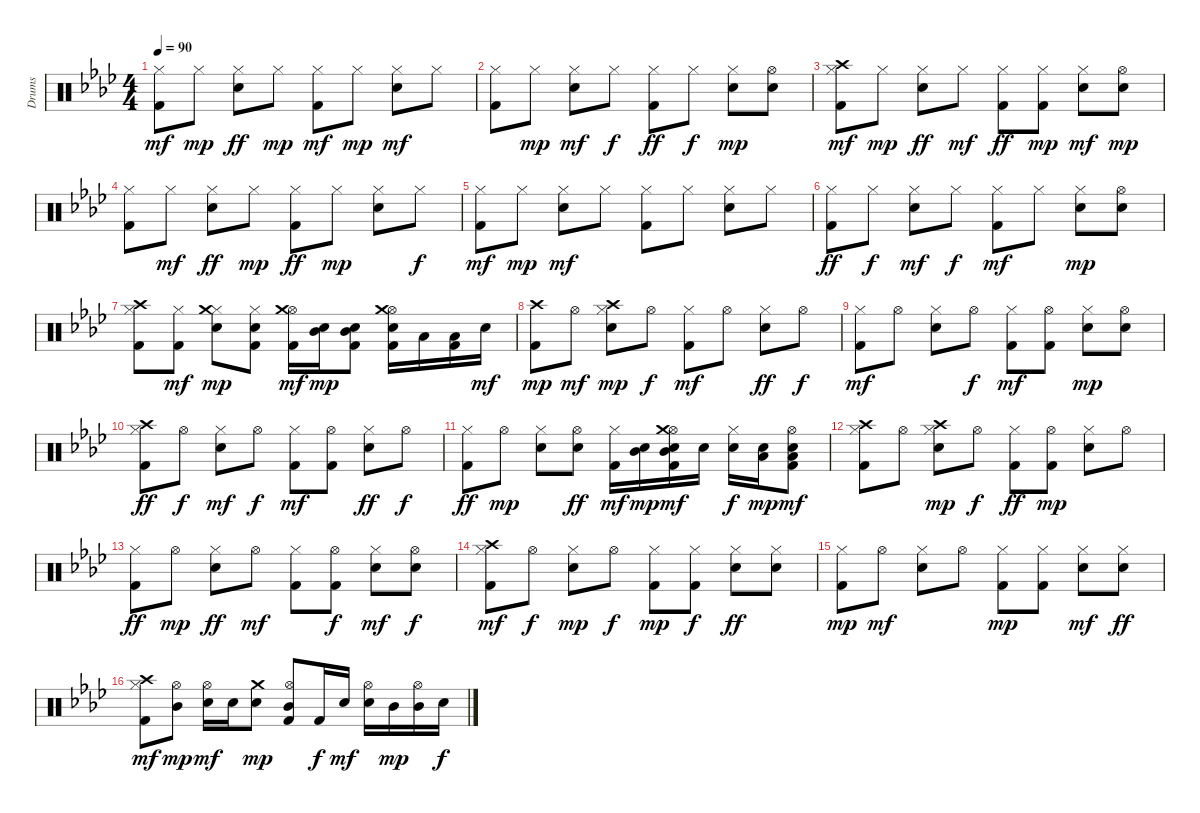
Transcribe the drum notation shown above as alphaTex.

\track ("Drums" "Drums") {instrument percussion}
\staff {score}
\articulation defaults
\ts (4 4)
\tempo 90
\clef neutral
\ks ab
("Kick (hit) 2" "Hi-Hat (closed)").8{dy mf} "Hi-Hat (closed)".8{dy mp} ("Snare (hit) 2" "Hi-Hat (closed)").8{dy ff} "Hi-Hat (closed)".8{dy mp} ("Kick (hit) 2" "Hi-Hat (closed)").8{dy mf} "Hi-Hat (closed)".8{dy mp} ("Snare (hit) 2" "Hi-Hat (closed)").8{dy mf} "Hi-Hat (closed)".8 |
("Kick (hit) 2" "Hi-Hat (closed)").8 "Hi-Hat (closed)".8{dy mp} ("Snare (hit) 2" "Hi-Hat (closed)").8{dy mf} "Hi-Hat (closed)".8{dy f} ("Kick (hit) 2" "Hi-Hat (closed)").8{dy ff} "Hi-Hat (closed)".8{dy f} ("Snare (hit) 2" "Hi-Hat (closed)").8{dy mp} ("Snare (hit) 2" "Hi-Hat (open)").8 |
("Kick (hit) 2" "Hi-Hat (closed)" "Crash high (hit)").8{dy mf} "Hi-Hat (closed)".8{dy mp} ("Snare (hit) 2" "Hi-Hat (closed)").8{dy ff} "Hi-Hat (closed)".8{dy mf} ("Kick (hit) 2" "Hi-Hat (closed)").8{dy ff} ("Kick (hit) 2" "Hi-Hat (closed)").8{dy mp} ("Snare (hit) 2" "Hi-Hat (closed)").8{dy mf} ("Snare (hit) 2" "Hi-Hat (open)").8{dy mp} |
("Kick (hit) 2" "Hi-Hat (closed)").8 "Hi-Hat (closed)".8{dy mf} ("Snare (hit) 2" "Hi-Hat (closed)").8{dy ff} "Hi-Hat (closed)".8{dy mp} ("Kick (hit) 2" "Hi-Hat (closed)").8{dy ff} "Hi-Hat (closed)".8{dy mp} ("Snare (hit) 2" "Hi-Hat (closed)").8 "Hi-Hat (closed)".8{dy f} |
("Kick (hit) 2" "Hi-Hat (closed)").8{dy mf} "Hi-Hat (closed)".8{dy mp} ("Snare (hit) 2" "Hi-Hat (closed)").8{dy mf} "Hi-Hat (closed)".8 ("Kick (hit) 2" "Hi-Hat (closed)").8 "Hi-Hat (closed)".8 ("Snare (hit) 2" "Hi-Hat (closed)").8 "Hi-Hat (closed)".8 |
("Kick (hit) 2" "Hi-Hat (closed)").8{dy ff} "Hi-Hat (closed)".8{dy f} ("Snare (hit) 2" "Hi-Hat (closed)").8{dy mf} "Hi-Hat (closed)".8{dy f} ("Kick (hit) 2" "Hi-Hat (closed)").8{dy mf} "Hi-Hat (closed)".8 ("Snare (hit) 2" "Hi-Hat (closed)").8{dy mp} ("Snare (hit) 2" "Hi-Hat (open)").8 |
("Kick (hit) 2" "Hi-Hat (closed)" "Crash high (hit)").8 ("Kick (hit) 2" "Hi-Hat (closed)").8{dy mf} ("Snare (hit) 2" "Hi-Hat (closed)" "Crash medium (hit)").8{dy mp} ("Kick (hit) 2" "Snare (hit) 2" "Hi-Hat (closed)").8 ("Kick (hit) 2" "Hi-Hat (open)" "Crash medium (hit)").16{dy mf} ("Snare (hit) 2" "Mid Tom (hit)").16{dy mp} ("Kick (hit) 2" "Snare (hit) 2" "Mid Tom (hit)").8 ("Kick (hit) 2" "Snare (hit) 2" "Hi-Hat (open)" "Crash medium (hit)").16 "Low Tom (hit)".16 ("Kick (hit) 2" "Low Tom (hit)").16 "Snare (hit) 2".16{dy mf} |
("Kick (hit) 2" "Crash high (hit)").8{dy mp} "Hi-Hat (open)".8{dy mf} ("Snare (hit) 2" "Hi-Hat (closed)" "Crash high (hit)").8{dy mp} "Hi-Hat (open)".8{dy f} ("Kick (hit) 2" "Hi-Hat (closed)").8{dy mf} "Hi-Hat (open)".8 ("Snare (hit) 2" "Hi-Hat (closed)").8{dy ff} "Hi-Hat (open)".8{dy f} |
("Kick (hit) 2" "Hi-Hat (closed)").8{dy mf} "Hi-Hat (open)".8 ("Snare (hit) 2" "Hi-Hat (closed)").8 "Hi-Hat (open)".8{dy f} ("Kick (hit) 2" "Hi-Hat (closed)").8{dy mf} ("Kick (hit) 2" "Hi-Hat (open)").8 ("Snare (hit) 2" "Hi-Hat (closed)").8{dy mp} ("Snare (hit) 2" "Hi-Hat (open)").8 |
("Kick (hit) 2" "Hi-Hat (closed)" "Crash high (hit)").8{dy ff} "Hi-Hat (open)".8{dy f} ("Snare (hit) 2" "Hi-Hat (closed)").8{dy mf} "Hi-Hat (open)".8{dy f} ("Kick (hit) 2" "Hi-Hat (closed)").8{dy mf} ("Kick (hit) 2" "Hi-Hat (open)").8 ("Snare (hit) 2" "Hi-Hat (closed)").8{dy ff} "Hi-Hat (open)".8{dy f} |
("Kick (hit) 2" "Hi-Hat (closed)").8{dy ff} "Hi-Hat (open)".8{dy mp} ("Snare (hit) 2" "Hi-Hat (closed)").8 ("Snare (hit) 2" "Hi-Hat (open)").8{dy ff} ("Kick (hit) 2" "Hi-Hat (closed)").16{dy mf} ("Snare (hit) 2" "Mid Tom (hit)").16{dy mp} ("Kick (hit) 2" "Snare (hit) 2" "Hi-Hat (open)" "Mid Tom (hit)" "Crash medium (hit)").16{dy mf} "Snare (hit) 2".16 ("Snare (hit) 2" "Hi-Hat (closed)").16{dy f} ("Snare (hit) 2" "Low Tom (hit)").16{dy mp} ("Kick (hit) 2" "Snare (hit) 2" "Low Tom (hit)" "Hi-Hat (open)").8{dy mf} |
("Kick (hit) 2" "Hi-Hat (closed)" "Crash high (hit)").8 "Hi-Hat (open)".8 ("Snare (hit) 2" "Hi-Hat (closed)" "Crash high (hit)").8{dy mp} "Hi-Hat (open)".8{dy f} ("Kick (hit) 2" "Hi-Hat (closed)").8{dy ff} ("Kick (hit) 2" "Hi-Hat (open)").8{dy mp} ("Snare (hit) 2" "Hi-Hat (closed)").8 "Hi-Hat (open)".8 |
("Kick (hit) 2" "Hi-Hat (closed)").8{dy ff} "Hi-Hat (open)".8{dy mp} ("Snare (hit) 2" "Hi-Hat (closed)").8{dy ff} "Hi-Hat (open)".8{dy mf} ("Kick (hit) 2" "Hi-Hat (closed)").8 ("Kick (hit) 2" "Hi-Hat (open)").8{dy f} ("Snare (hit) 2" "Hi-Hat (closed)").8{dy mf} ("Snare (hit) 2" "Hi-Hat (open)").8{dy f} |
("Kick (hit) 2" "Hi-Hat (closed)" "Crash high (hit)").8{dy mf} "Hi-Hat (open)".8{dy f} ("Snare (hit) 2" "Hi-Hat (closed)").8{dy mp} "Hi-Hat (open)".8{dy f} ("Kick (hit) 2" "Hi-Hat (closed)").8{dy mp} ("Kick (hit) 2" "Hi-Hat (closed)").8{dy f} ("Snare (hit) 2" "Hi-Hat (closed)").8{dy ff} ("Snare (hit) 2" "Hi-Hat (closed)").8 |
("Kick (hit) 2" "Hi-Hat (closed)").8{dy mp} "Hi-Hat (open)".8{dy mf} ("Snare (hit) 2" "Hi-Hat (closed)").8 "Hi-Hat (open)".8 ("Kick (hit) 2" "Hi-Hat (closed)").8{dy mp} ("Kick (hit) 2" "Hi-Hat (closed)").8 ("Snare (hit) 2" "Hi-Hat (closed)").8{dy mf} ("Snare (hit) 2" "Hi-Hat (closed)").8{dy ff} |
("Kick (hit) 2" "Hi-Hat (closed)" "Crash high (hit)").8{dy mf} ("Hi-Hat (open)" "Mid Tom (hit)").8{dy mp} ("Snare (hit) 2" "Hi-Hat (open)").16{dy mf} "Snare (hit) 2".16 ("Snare (hit) 2" "Crash medium (hit)").8{dy mp} ("Kick (hit) 2" "Hi-Hat (open)" "Mid Tom (hit)").8 "Kick (hit) 2".16{dy f} "Snare (hit) 2".16{dy mf} ("Snare (hit) 2" "Hi-Hat (open)").16 "Mid Tom (hit)".16{dy mp} ("Hi-Hat (open)" "Mid Tom (hit)").16 "Snare (hit) 2".16{dy f}
